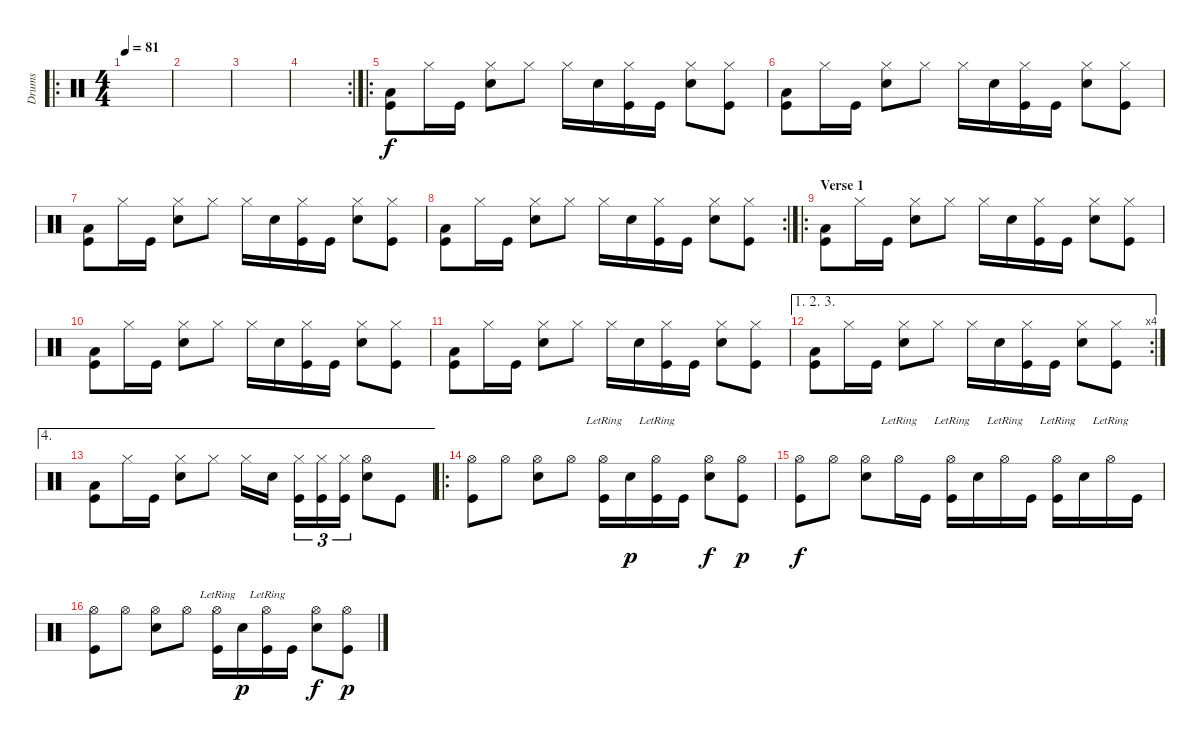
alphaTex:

\track ("Drums" "Drums") {instrument percussion}
\staff {score}
\articulation defaults
\ro
\ts (4 4)
\tempo 81
\clef neutral
\ks c
|
|
|
\rc 2
|
\ro
("Low Floor Tom (hit)" "Kick (hit)").8 "Hi-Hat (closed)".16 "Kick (hit)".16 ("Hi-Hat (closed)" "Electric Snare (hit)").8 "Hi-Hat (closed)".8 "Hi-Hat (closed)".16 "Electric Snare (hit)".16 ("Hi-Hat (closed)" "Kick (hit)").16 "Kick (hit)".16 ("Hi-Hat (closed)" "Electric Snare (hit)").8 ("Hi-Hat (closed)" "Kick (hit)").8 |
("Low Floor Tom (hit)" "Kick (hit)").8 "Hi-Hat (closed)".16 "Kick (hit)".16 ("Hi-Hat (closed)" "Electric Snare (hit)").8 "Hi-Hat (closed)".8 "Hi-Hat (closed)".16 "Electric Snare (hit)".16 ("Hi-Hat (closed)" "Kick (hit)").16 "Kick (hit)".16 ("Hi-Hat (closed)" "Electric Snare (hit)").8 ("Hi-Hat (closed)" "Kick (hit)").8 |
("Low Floor Tom (hit)" "Kick (hit)").8 "Hi-Hat (closed)".16 "Kick (hit)".16 ("Hi-Hat (closed)" "Electric Snare (hit)").8 "Hi-Hat (closed)".8 "Hi-Hat (closed)".16 "Electric Snare (hit)".16 ("Hi-Hat (closed)" "Kick (hit)").16 "Kick (hit)".16 ("Hi-Hat (closed)" "Electric Snare (hit)").8 ("Hi-Hat (closed)" "Kick (hit)").8 |
\rc 2
("Low Floor Tom (hit)" "Kick (hit)").8 "Hi-Hat (closed)".16 "Kick (hit)".16 ("Hi-Hat (closed)" "Electric Snare (hit)").8 "Hi-Hat (closed)".8 "Hi-Hat (closed)".16 "Electric Snare (hit)".16 ("Hi-Hat (closed)" "Kick (hit)").16 "Kick (hit)".16 ("Hi-Hat (closed)" "Electric Snare (hit)").8 ("Hi-Hat (closed)" "Kick (hit)").8 |
\ro
\section ("" "Verse 1")
("Low Floor Tom (hit)" "Kick (hit)").8 "Hi-Hat (closed)".16 "Kick (hit)".16 ("Hi-Hat (closed)" "Electric Snare (hit)").8 "Hi-Hat (closed)".8 "Hi-Hat (closed)".16 "Electric Snare (hit)".16 ("Hi-Hat (closed)" "Kick (hit)").16 "Kick (hit)".16 ("Hi-Hat (closed)" "Electric Snare (hit)").8 ("Hi-Hat (closed)" "Kick (hit)").8 |
("Low Floor Tom (hit)" "Kick (hit)").8 "Hi-Hat (closed)".16 "Kick (hit)".16 ("Hi-Hat (closed)" "Electric Snare (hit)").8 "Hi-Hat (closed)".8 "Hi-Hat (closed)".16 "Electric Snare (hit)".16 ("Hi-Hat (closed)" "Kick (hit)").16 "Kick (hit)".16 ("Hi-Hat (closed)" "Electric Snare (hit)").8 ("Hi-Hat (closed)" "Kick (hit)").8 |
("Low Floor Tom (hit)" "Kick (hit)").8 "Hi-Hat (closed)".16 "Kick (hit)".16 ("Hi-Hat (closed)" "Electric Snare (hit)").8 "Hi-Hat (closed)".8 "Hi-Hat (closed)".16 "Electric Snare (hit)".16 ("Hi-Hat (closed)" "Kick (hit)").16 "Kick (hit)".16 ("Hi-Hat (closed)" "Electric Snare (hit)").8 ("Hi-Hat (closed)" "Kick (hit)").8 |
\ae (1 2 3)
\rc 4
("Low Floor Tom (hit)" "Kick (hit)").8 "Hi-Hat (closed)".16 "Kick (hit)".16 ("Hi-Hat (closed)" "Electric Snare (hit)").8 "Hi-Hat (closed)".8 "Hi-Hat (closed)".16 "Electric Snare (hit)".16 ("Hi-Hat (closed)" "Kick (hit)").16 "Kick (hit)".16 ("Hi-Hat (closed)" "Electric Snare (hit)").8 ("Hi-Hat (closed)" "Kick (hit)").8 |
\ae 4
("Low Floor Tom (hit)" "Kick (hit)").8 "Hi-Hat (closed)".16 "Kick (hit)".16 ("Hi-Hat (closed)" "Electric Snare (hit)").8 "Hi-Hat (closed)".8 "Hi-Hat (closed)".16 "Electric Snare (hit)".16 ("Hi-Hat (closed)" "Kick (hit)").16{tu (3 2)} ("Hi-Hat (closed)" "Kick (hit)").16{tu (3 2)} ("Hi-Hat (closed)" "Kick (hit)").16{tu (3 2)} ("Hi-Hat (open)" "Electric Snare (hit)").8 "Kick (hit)".8 |
\ro
("Hi-Hat (open)" "Kick (hit)").8 "Hi-Hat (open)".8 ("Hi-Hat (open)" "Snare (hit) 2").8 "Hi-Hat (open)".8 ("Hi-Hat (open)"{lr} "Kick (hit)").16 "Electric Snare (hit)".16{dy p} ("Hi-Hat (open)"{lr} "Kick (hit)").16 "Kick (hit)".16 ("Hi-Hat (open)" "Snare (hit) 2").8{dy f} ("Hi-Hat (open)" "Kick (hit)").8{dy p} |
("Hi-Hat (open)" "Kick (hit)").8{dy f} "Hi-Hat (open)".8 ("Hi-Hat (open)" "Snare (hit) 2").8 "Hi-Hat (open)"{lr}.16 "Kick (hit)".16 ("Hi-Hat (open)"{lr} "Kick (hit)").16 "Snare (hit) 2".16 "Hi-Hat (open)"{lr}.16 "Kick (hit)".16 ("Hi-Hat (open)"{lr} "Kick (hit)").16 "Snare (hit) 2".16 "Hi-Hat (open)"{lr}.16 "Kick (hit)".16 |
("Hi-Hat (open)" "Kick (hit)").8 "Hi-Hat (open)".8 ("Hi-Hat (open)" "Snare (hit) 2").8 "Hi-Hat (open)".8 ("Hi-Hat (open)"{lr} "Kick (hit)").16 "Electric Snare (hit)".16{dy p} ("Hi-Hat (open)"{lr} "Kick (hit)").16 "Kick (hit)".16 ("Hi-Hat (open)" "Snare (hit) 2").8{dy f} ("Hi-Hat (open)" "Kick (hit)").8{dy p}
